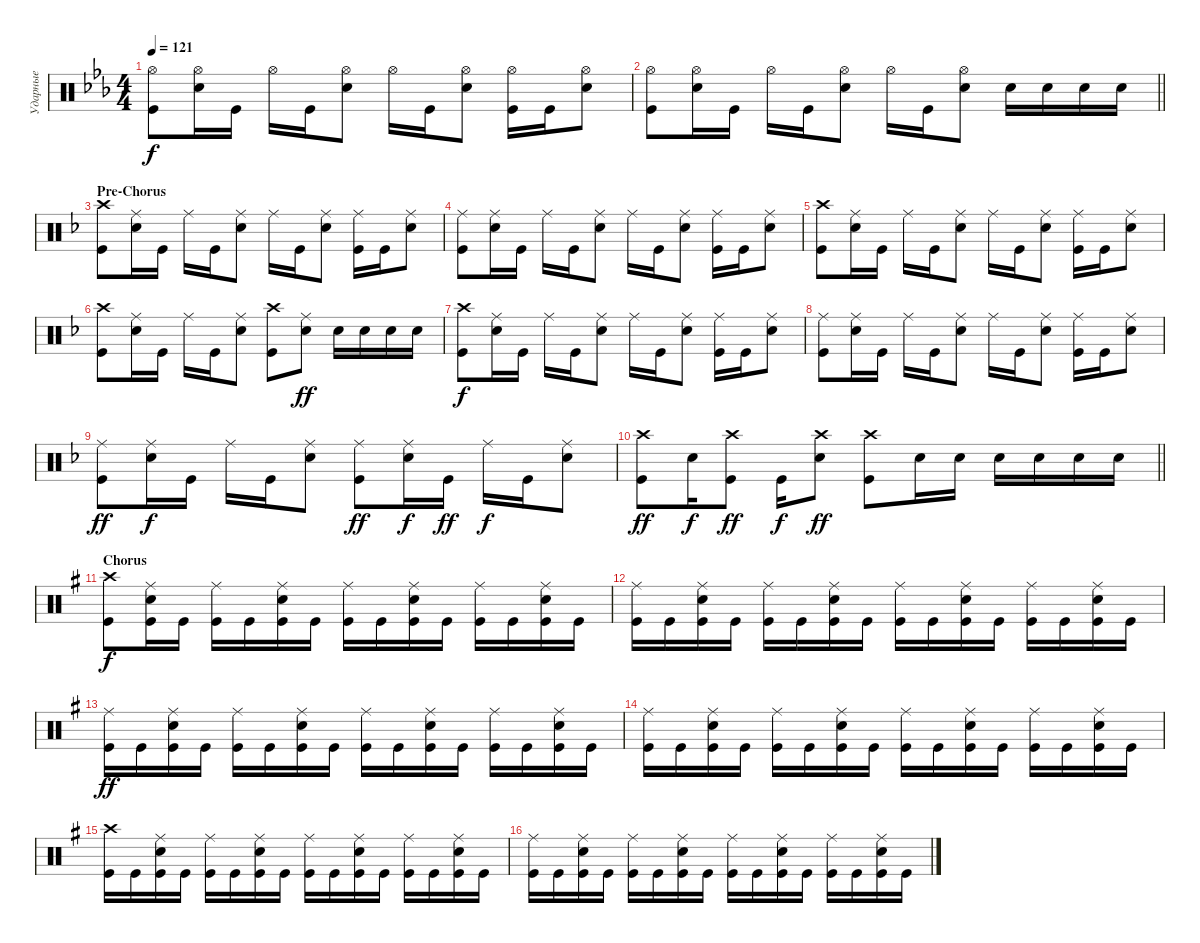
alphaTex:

\track ("Ударные" "Ударные") {instrument percussion}
\staff {score}
\articulation defaults
\ts (4 4)
\tempo 121
\clef neutral
\ks cminor
("Kick (hit)" "Hi-Hat (open)").8{dy f} ("Snare (hit) 2" "Hi-Hat (open)").16 "Kick (hit)".16 "Hi-Hat (open)".16 "Kick (hit)".16 ("Snare (hit) 2" "Hi-Hat (open)").8 "Hi-Hat (open)".16 "Kick (hit)".16 ("Snare (hit) 2" "Hi-Hat (open)").8 ("Kick (hit)" "Hi-Hat (open)").16 "Kick (hit)".16 ("Snare (hit) 2" "Hi-Hat (open)").8 |
\barLineRight lightlight
("Kick (hit)" "Hi-Hat (open)").8 ("Snare (hit) 2" "Hi-Hat (open)").16 "Kick (hit)".16 "Hi-Hat (open)".16 "Kick (hit)".16 ("Snare (hit) 2" "Hi-Hat (open)").8 "Hi-Hat (open)".16 "Kick (hit)".16 ("Snare (hit) 2" "Hi-Hat (open)").8 "Snare (hit) 2".16 "Snare (hit) 2".16 "Snare (hit) 2".16 "Snare (hit) 2".16 |
\section ("" "Pre-Chorus")
\ks dminor
("Kick (hit)" "Crash high (hit)").8 ("Snare (hit) 2" "Ride (middle)").16 "Kick (hit)".16 "Ride (middle)".16 "Kick (hit)".16 ("Snare (hit) 2" "Ride (middle)").8 "Ride (middle)".16 "Kick (hit)".16 ("Snare (hit) 2" "Ride (middle)").8 ("Kick (hit)" "Ride (middle)").16 "Kick (hit)".16 ("Snare (hit) 2" "Ride (middle)").8 |
("Kick (hit)" "Ride (middle)").8 ("Snare (hit) 2" "Ride (middle)").16 "Kick (hit)".16 "Ride (middle)".16 "Kick (hit)".16 ("Snare (hit) 2" "Ride (middle)").8 "Ride (middle)".16 "Kick (hit)".16 ("Snare (hit) 2" "Ride (middle)").8 ("Kick (hit)" "Ride (middle)").16 "Kick (hit)".16 ("Snare (hit) 2" "Ride (middle)").8 |
("Kick (hit)" "Crash high (hit)").8 ("Snare (hit) 2" "Ride (middle)").16 "Kick (hit)".16 "Ride (middle)".16 "Kick (hit)".16 ("Snare (hit) 2" "Ride (middle)").8 "Ride (middle)".16 "Kick (hit)".16 ("Snare (hit) 2" "Ride (middle)").8 ("Kick (hit)" "Ride (middle)").16 "Kick (hit)".16 ("Snare (hit) 2" "Ride (middle)").8 |
("Kick (hit)" "Crash high (hit)").8 ("Snare (hit) 2" "Ride (middle)").16 "Kick (hit)".16 "Ride (middle)".16 "Kick (hit)".16 ("Snare (hit) 2" "Ride (middle)").8 ("Kick (hit)" "Crash high (hit)").8 ("Snare (hit) 2" "Ride (middle)").8{dy ff} "Snare (hit) 2".16 "Snare (hit) 2".16 "Snare (hit) 2".16 "Snare (hit) 2".16 |
("Kick (hit)" "Crash high (hit)").8{dy f} ("Snare (hit) 2" "Ride (middle)").16 "Kick (hit)".16 "Ride (middle)".16 "Kick (hit)".16 ("Snare (hit) 2" "Ride (middle)").8 "Ride (middle)".16 "Kick (hit)".16 ("Snare (hit) 2" "Ride (middle)").8 ("Kick (hit)" "Ride (middle)").16 "Kick (hit)".16 ("Snare (hit) 2" "Ride (middle)").8 |
("Kick (hit)" "Ride (middle)").8 ("Snare (hit) 2" "Ride (middle)").16 "Kick (hit)".16 "Ride (middle)".16 "Kick (hit)".16 ("Snare (hit) 2" "Ride (middle)").8 "Ride (middle)".16 "Kick (hit)".16 ("Snare (hit) 2" "Ride (middle)").8 ("Kick (hit)" "Ride (middle)").16 "Kick (hit)".16 ("Snare (hit) 2" "Ride (middle)").8 |
("Kick (hit)" "Ride (middle)").8{dy ff} ("Snare (hit) 2" "Ride (middle)").16{dy f} "Kick (hit)".16 "Ride (middle)".16 "Kick (hit)".16 ("Snare (hit) 2" "Ride (middle)").8 ("Kick (hit)" "Ride (middle)").8{dy ff} ("Snare (hit) 2" "Ride (middle)").16{dy f} "Kick (hit)".16{dy ff} "Ride (middle)".16{dy f} "Kick (hit)".16 ("Snare (hit) 2" "Ride (middle)").8 |
\barLineRight lightlight
("Kick (hit)" "Crash high (hit)").8{dy ff} "Snare (hit) 2".16{dy f} ("Kick (hit)" "Crash high (hit)").8{dy ff} "Kick (hit)".16{dy f} ("Snare (hit) 2" "Crash high (hit)").8{dy ff} ("Kick (hit)" "Crash high (hit)").8 "Snare (hit) 2".16 "Snare (hit) 2".16 "Snare (hit) 2".16 "Snare (hit) 2".16 "Snare (hit) 2".16 "Snare (hit) 2".16 |
\section ("" "Chorus")
\ks eminor
("Kick (hit)" "Crash high (hit)").8{dy f} ("Kick (hit)" "Snare (hit) 2" "Ride (middle)").16 "Kick (hit)".16 ("Kick (hit)" "Ride (middle)").16 "Kick (hit)".16 ("Kick (hit)" "Snare (hit) 2" "Ride (middle)").16 "Kick (hit)".16 ("Kick (hit)" "Ride (middle)").16 "Kick (hit)".16 ("Kick (hit)" "Snare (hit) 2" "Ride (middle)").16 "Kick (hit)".16 ("Kick (hit)" "Ride (middle)").16 "Kick (hit)".16 ("Kick (hit)" "Snare (hit) 2" "Ride (middle)").16 "Kick (hit)".16 |
("Kick (hit)" "Ride (middle)").16 "Kick (hit)".16 ("Kick (hit)" "Snare (hit) 2" "Ride (middle)").16 "Kick (hit)".16 ("Kick (hit)" "Ride (middle)").16 "Kick (hit)".16 ("Kick (hit)" "Snare (hit) 2" "Ride (middle)").16 "Kick (hit)".16 ("Kick (hit)" "Ride (middle)").16 "Kick (hit)".16 ("Kick (hit)" "Snare (hit) 2" "Ride (middle)").16 "Kick (hit)".16 ("Kick (hit)" "Ride (middle)").16 "Kick (hit)".16 ("Kick (hit)" "Snare (hit) 2" "Ride (middle)").16 "Kick (hit)".16 |
("Kick (hit)" "Ride (middle)").16{dy ff} "Kick (hit)".16 ("Kick (hit)" "Snare (hit) 2" "Ride (middle)").16 "Kick (hit)".16 ("Kick (hit)" "Ride (middle)").16 "Kick (hit)".16 ("Kick (hit)" "Snare (hit) 2" "Ride (middle)").16 "Kick (hit)".16 ("Kick (hit)" "Ride (middle)").16 "Kick (hit)".16 ("Kick (hit)" "Snare (hit) 2" "Ride (middle)").16 "Kick (hit)".16 ("Kick (hit)" "Ride (middle)").16 "Kick (hit)".16 ("Kick (hit)" "Snare (hit) 2" "Ride (middle)").16 "Kick (hit)".16 |
("Kick (hit)" "Ride (middle)").16 "Kick (hit)".16 ("Kick (hit)" "Snare (hit) 2" "Ride (middle)").16 "Kick (hit)".16 ("Kick (hit)" "Ride (middle)").16 "Kick (hit)".16 ("Kick (hit)" "Snare (hit) 2" "Ride (middle)").16 "Kick (hit)".16 ("Kick (hit)" "Ride (middle)").16 "Kick (hit)".16 ("Kick (hit)" "Snare (hit) 2" "Ride (middle)").16 "Kick (hit)".16 ("Kick (hit)" "Ride (middle)").16 "Kick (hit)".16 ("Kick (hit)" "Snare (hit) 2" "Ride (middle)").16 "Kick (hit)".16 |
("Kick (hit)" "Crash high (hit)").16 "Kick (hit)".16 ("Kick (hit)" "Snare (hit) 2" "Ride (middle)").16 "Kick (hit)".16 ("Kick (hit)" "Ride (middle)").16 "Kick (hit)".16 ("Kick (hit)" "Snare (hit) 2" "Ride (middle)").16 "Kick (hit)".16 ("Kick (hit)" "Ride (middle)").16 "Kick (hit)".16 ("Kick (hit)" "Snare (hit) 2" "Ride (middle)").16 "Kick (hit)".16 ("Kick (hit)" "Ride (middle)").16 "Kick (hit)".16 ("Kick (hit)" "Snare (hit) 2" "Ride (middle)").16 "Kick (hit)".16 |
("Kick (hit)" "Ride (middle)").16 "Kick (hit)".16 ("Kick (hit)" "Snare (hit) 2" "Ride (middle)").16 "Kick (hit)".16 ("Kick (hit)" "Ride (middle)").16 "Kick (hit)".16 ("Kick (hit)" "Snare (hit) 2" "Ride (middle)").16 "Kick (hit)".16 ("Kick (hit)" "Ride (middle)").16 "Kick (hit)".16 ("Kick (hit)" "Snare (hit) 2" "Ride (middle)").16 "Kick (hit)".16 ("Kick (hit)" "Ride (middle)").16 "Kick (hit)".16 ("Kick (hit)" "Snare (hit) 2" "Ride (middle)").16 "Kick (hit)".16
